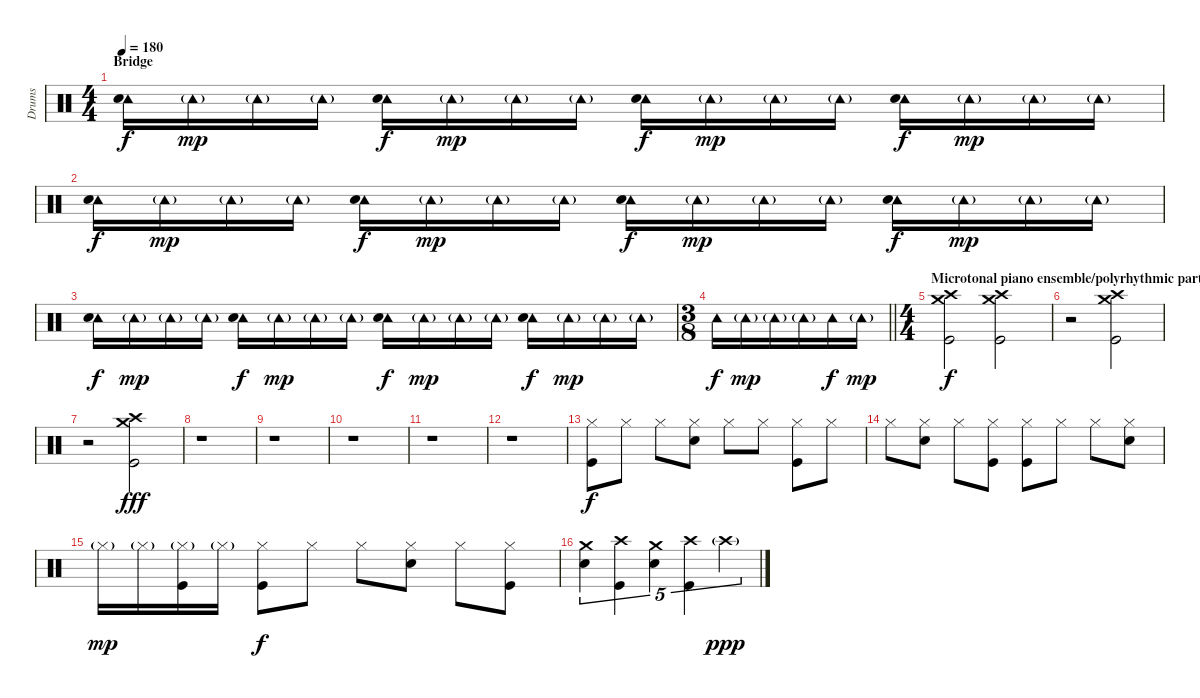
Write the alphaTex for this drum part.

\track ("Drums" "Drums") {instrument percussion}
\staff {score}
\articulation defaults
\ts (4 4)
\section ("" "Bridge")
\tempo 180
\clef neutral
\ks c
("Tambourine (hit)" "Hand Clap (hit)").16{dy f} "Tambourine (hit)"{g}.16{dy mp} "Tambourine (hit)"{g}.16 "Tambourine (hit)"{g}.16 ("Tambourine (hit)" "Hand Clap (hit)").16{dy f} "Tambourine (hit)"{g}.16{dy mp} "Tambourine (hit)"{g}.16 "Tambourine (hit)"{g}.16 ("Tambourine (hit)" "Hand Clap (hit)").16{dy f} "Tambourine (hit)"{g}.16{dy mp} "Tambourine (hit)"{g}.16 "Tambourine (hit)"{g}.16 ("Tambourine (hit)" "Hand Clap (hit)").16{dy f} "Tambourine (hit)"{g}.16{dy mp} "Tambourine (hit)"{g}.16 "Tambourine (hit)"{g}.16 |
("Tambourine (hit)" "Hand Clap (hit)").16{dy f} "Tambourine (hit)"{g}.16{dy mp} "Tambourine (hit)"{g}.16 "Tambourine (hit)"{g}.16 ("Tambourine (hit)" "Hand Clap (hit)").16{dy f} "Tambourine (hit)"{g}.16{dy mp} "Tambourine (hit)"{g}.16 "Tambourine (hit)"{g}.16 ("Tambourine (hit)" "Hand Clap (hit)").16{dy f} "Tambourine (hit)"{g}.16{dy mp} "Tambourine (hit)"{g}.16 "Tambourine (hit)"{g}.16 ("Tambourine (hit)" "Hand Clap (hit)").16{dy f} "Tambourine (hit)"{g}.16{dy mp} "Tambourine (hit)"{g}.16 "Tambourine (hit)"{g}.16 |
("Tambourine (hit)" "Hand Clap (hit)").16{dy f} "Tambourine (hit)"{g}.16{dy mp} "Tambourine (hit)"{g}.16 "Tambourine (hit)"{g}.16 ("Tambourine (hit)" "Hand Clap (hit)").16{dy f} "Tambourine (hit)"{g}.16{dy mp} "Tambourine (hit)"{g}.16 "Tambourine (hit)"{g}.16 ("Tambourine (hit)" "Hand Clap (hit)").16{dy f} "Tambourine (hit)"{g}.16{dy mp} "Tambourine (hit)"{g}.16 "Tambourine (hit)"{g}.16 ("Tambourine (hit)" "Hand Clap (hit)").16{dy f} "Tambourine (hit)"{g}.16{dy mp} "Tambourine (hit)"{g}.16 "Tambourine (hit)"{g}.16 |
\ts (3 8)
\barLineRight lightlight "Tambourine (hit)".16{dy f} "Tambourine (hit)"{g}.16{dy mp} "Tambourine (hit)"{g}.16 "Tambourine (hit)"{g}.16 "Tambourine (hit)".16{dy f} "Tambourine (hit)"{g}.16{dy mp}
|
\ts (4 4)
\section ("" "Microtonal piano ensemble/polyrhythmic part")
("Crash high (hit)" "Crash medium (hit)" "Kick (hit)").2{dy f} ("Crash high (hit)" "Crash medium (hit)" "Kick (hit)").2 |
r.2 ("Crash high (hit)" "Crash medium (hit)" "Kick (hit)").2 |
r.2 ("Crash high (hit)" "Crash medium (hit)" "Kick (hit)").2{dy fff} |
r.1 |
r.1 |
r.1 |
r.1 |
r.1 |
("Hi-Hat (closed)" "Kick (hit)").8{dy f} "Hi-Hat (closed)".8 "Hi-Hat (closed)".8 ("Hi-Hat (closed)" "Electric Snare (hit)").8 "Hi-Hat (closed)".8 "Hi-Hat (closed)".8 ("Hi-Hat (closed)" "Kick (hit)").8 "Hi-Hat (closed)".8 |
"Hi-Hat (closed)".8 ("Hi-Hat (closed)" "Electric Snare (hit)").8 "Hi-Hat (closed)".8 ("Hi-Hat (closed)" "Kick (hit)").8 ("Hi-Hat (closed)" "Kick (hit)").8 "Hi-Hat (closed)".8 "Hi-Hat (closed)".8 ("Hi-Hat (closed)" "Electric Snare (hit)").8 |
"Hi-Hat (closed)"{g}.16{dy mp} "Hi-Hat (closed)"{g}.16 ("Hi-Hat (closed)"{g} "Kick (hit)").16 "Hi-Hat (closed)"{g}.16 ("Hi-Hat (closed)" "Kick (hit)").8{dy f} "Hi-Hat (closed)".8 "Hi-Hat (closed)".8 ("Hi-Hat (closed)" "Electric Snare (hit)").8 "Hi-Hat (closed)".8 ("Hi-Hat (closed)" "Kick (hit)").8 |
("Crash medium (hit)" "Electric Snare (hit)").4{tu (5 4)} ("Crash high (hit)" "Kick (hit)").4{tu (5 4)} ("Crash medium (hit)" "Electric Snare (hit)").4{tu (5 4)} ("Crash high (hit)" "Kick (hit)").4{tu (5 4)} "Crash high (hit)"{g}.4{tu (5 4) dy ppp}
